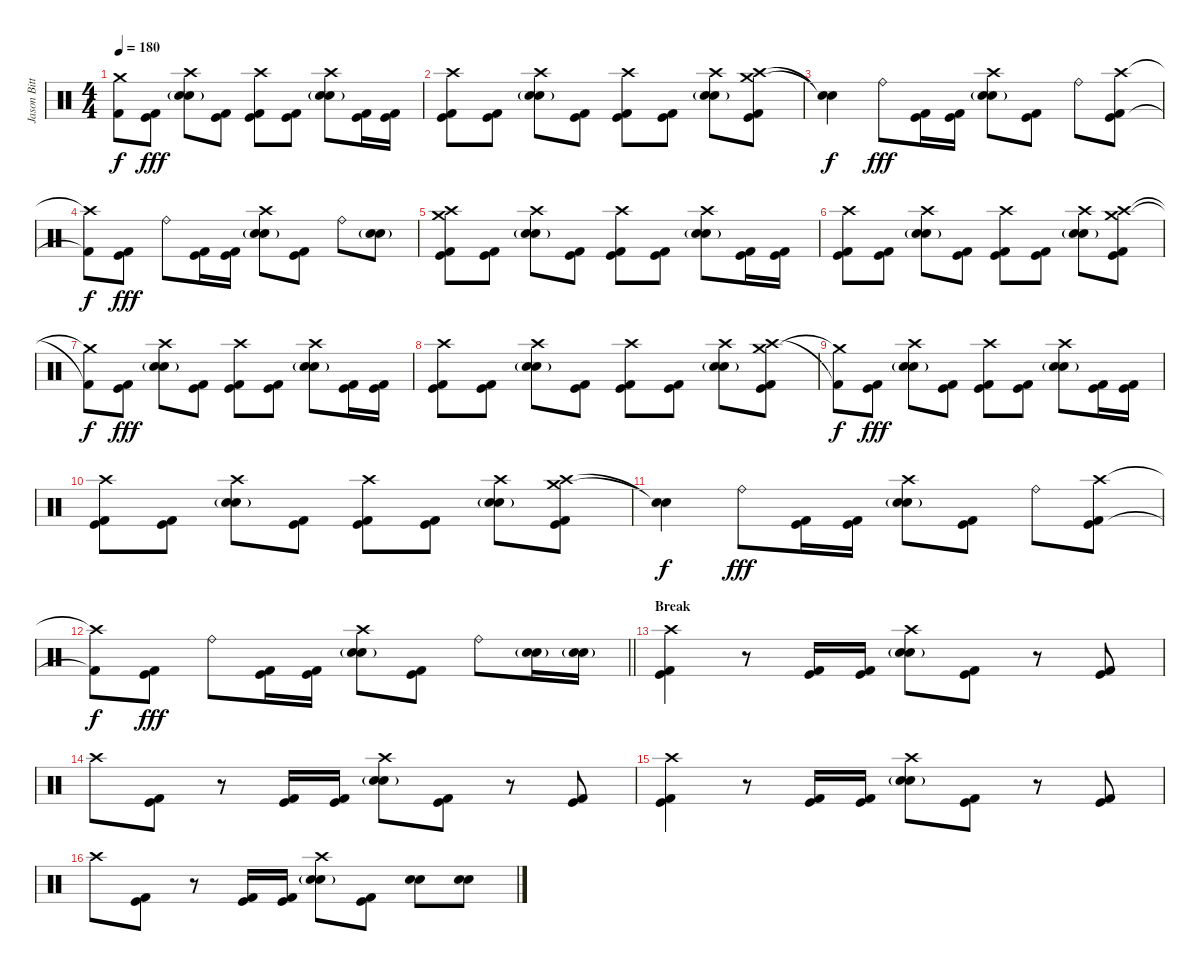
\track ("Jason Bittner" "Jason Bitt") {instrument percussion}
\staff {score}
\articulation defaults
\ts (4 4)
\tempo 180
\clef neutral
\ks c
("Crash medium (hit)"{t} "Kick (hit) 2"{t}).8{dy f} ("Kick (hit)" "Kick (hit) 2").8{dy fff} ("Crash high (hit)" "Snare (hit) 2"{g} "Electric Snare (hit)").8 ("Kick (hit)" "Kick (hit) 2").8 ("Crash high (hit)" "Kick (hit)" "Kick (hit) 2").8 ("Kick (hit)" "Kick (hit) 2").8 ("Crash high (hit)" "Snare (hit) 2"{g} "Electric Snare (hit)").8 ("Kick (hit)" "Kick (hit) 2").16 ("Kick (hit)" "Kick (hit) 2").16 |
("Crash high (hit)" "Kick (hit)" "Kick (hit) 2").8 ("Kick (hit)" "Kick (hit) 2").8 ("Crash high (hit)" "Snare (hit) 2"{g} "Electric Snare (hit)").8 ("Kick (hit)" "Kick (hit) 2").8 ("Crash high (hit)" "Kick (hit)" "Kick (hit) 2").8 ("Kick (hit)" "Kick (hit) 2").8 ("Crash high (hit)" "Snare (hit) 2"{g} "Electric Snare (hit)").8 ("Crash medium (hit)" "Crash high (hit)" "Kick (hit)" "Kick (hit) 2").8 |
("Snare (hit)"{t} "Snare (hit)"{t}).4{dy f} "Ride (bell)".8{dy fff} ("Kick (hit)" "Kick (hit) 2").16 ("Kick (hit)" "Kick (hit) 2").16 ("Crash high (hit)" "Snare (hit) 2"{g} "Electric Snare (hit)").8 ("Kick (hit)" "Kick (hit) 2").8 "Ride (bell)".8 ("Crash high (hit)" "Kick (hit)" "Kick (hit) 2").8 |
("Crash high (hit)"{t} "Kick (hit) 2"{t}).8{dy f} ("Kick (hit)" "Kick (hit) 2").8{dy fff} "Ride (bell)".8 ("Kick (hit)" "Kick (hit) 2").16 ("Kick (hit)" "Kick (hit) 2").16 ("Crash high (hit)" "Snare (hit) 2"{g} "Electric Snare (hit)").8 ("Kick (hit)" "Kick (hit) 2").8 "Ride (bell)".8 ("Snare (hit) 2"{g} "Electric Snare (hit)").8 |
("Crash medium (hit)" "Crash high (hit)" "Kick (hit)" "Kick (hit) 2").8 ("Kick (hit)" "Kick (hit) 2").8 ("Crash high (hit)" "Snare (hit) 2"{g} "Electric Snare (hit)").8 ("Kick (hit)" "Kick (hit) 2").8 ("Crash high (hit)" "Kick (hit)" "Kick (hit) 2").8 ("Kick (hit)" "Kick (hit) 2").8 ("Crash high (hit)" "Snare (hit) 2"{g} "Electric Snare (hit)").8 ("Kick (hit)" "Kick (hit) 2").16 ("Kick (hit)" "Kick (hit) 2").16 |
("Crash high (hit)" "Kick (hit)" "Kick (hit) 2").8 ("Kick (hit)" "Kick (hit) 2").8 ("Crash high (hit)" "Snare (hit) 2"{g} "Electric Snare (hit)").8 ("Kick (hit)" "Kick (hit) 2").8 ("Crash high (hit)" "Kick (hit)" "Kick (hit) 2").8 ("Kick (hit)" "Kick (hit) 2").8 ("Crash high (hit)" "Snare (hit) 2"{g} "Electric Snare (hit)").8 ("Crash medium (hit)" "Crash high (hit)" "Kick (hit)" "Kick (hit) 2").8 |
("Crash medium (hit)"{t} "Kick (hit) 2"{t}).8{dy f} ("Kick (hit)" "Kick (hit) 2").8{dy fff} ("Crash high (hit)" "Snare (hit) 2"{g} "Electric Snare (hit)").8 ("Kick (hit)" "Kick (hit) 2").8 ("Crash high (hit)" "Kick (hit)" "Kick (hit) 2").8 ("Kick (hit)" "Kick (hit) 2").8 ("Crash high (hit)" "Snare (hit) 2"{g} "Electric Snare (hit)").8 ("Kick (hit)" "Kick (hit) 2").16 ("Kick (hit)" "Kick (hit) 2").16 |
("Crash high (hit)" "Kick (hit)" "Kick (hit) 2").8 ("Kick (hit)" "Kick (hit) 2").8 ("Crash high (hit)" "Snare (hit) 2"{g} "Electric Snare (hit)").8 ("Kick (hit)" "Kick (hit) 2").8 ("Crash high (hit)" "Kick (hit)" "Kick (hit) 2").8 ("Kick (hit)" "Kick (hit) 2").8 ("Crash high (hit)" "Snare (hit) 2"{g} "Electric Snare (hit)").8 ("Crash medium (hit)" "Crash high (hit)" "Kick (hit)" "Kick (hit) 2").8 |
("Crash medium (hit)"{t} "Kick (hit) 2"{t}).8{dy f} ("Kick (hit)" "Kick (hit) 2").8{dy fff} ("Crash high (hit)" "Snare (hit) 2"{g} "Electric Snare (hit)").8 ("Kick (hit)" "Kick (hit) 2").8 ("Crash high (hit)" "Kick (hit)" "Kick (hit) 2").8 ("Kick (hit)" "Kick (hit) 2").8 ("Crash high (hit)" "Snare (hit) 2"{g} "Electric Snare (hit)").8 ("Kick (hit)" "Kick (hit) 2").16 ("Kick (hit)" "Kick (hit) 2").16 |
("Crash high (hit)" "Kick (hit)" "Kick (hit) 2").8 ("Kick (hit)" "Kick (hit) 2").8 ("Crash high (hit)" "Snare (hit) 2"{g} "Electric Snare (hit)").8 ("Kick (hit)" "Kick (hit) 2").8 ("Crash high (hit)" "Kick (hit)" "Kick (hit) 2").8 ("Kick (hit)" "Kick (hit) 2").8 ("Crash high (hit)" "Snare (hit) 2"{g} "Electric Snare (hit)").8 ("Crash medium (hit)" "Crash high (hit)" "Kick (hit)" "Kick (hit) 2").8 |
("Snare (hit)"{t} "Snare (hit)"{t}).4{dy f} "Ride (bell)".8{dy fff} ("Kick (hit)" "Kick (hit) 2").16 ("Kick (hit)" "Kick (hit) 2").16 ("Crash high (hit)" "Snare (hit) 2"{g} "Electric Snare (hit)").8 ("Kick (hit)" "Kick (hit) 2").8 "Ride (bell)".8 ("Crash high (hit)" "Kick (hit)" "Kick (hit) 2").8 |
\barLineRight lightlight
("Crash high (hit)"{t} "Kick (hit) 2"{t}).8{dy f} ("Kick (hit)" "Kick (hit) 2").8{dy fff} "Ride (bell)".8 ("Kick (hit)" "Kick (hit) 2").16 ("Kick (hit)" "Kick (hit) 2").16 ("Crash high (hit)" "Snare (hit) 2"{g} "Electric Snare (hit)").8 ("Kick (hit)" "Kick (hit) 2").8 "Ride (bell)".8 ("Snare (hit) 2"{g} "Electric Snare (hit)").16 ("Snare (hit) 2"{g} "Electric Snare (hit)").16 |
\section ("" "Break")
("Crash high (hit)" "Kick (hit)" "Kick (hit) 2").4 r.8 ("Kick (hit)" "Kick (hit) 2").16 ("Kick (hit)" "Kick (hit) 2").16 ("Crash high (hit)" "Snare (hit) 2"{g} "Electric Snare (hit)").8 ("Kick (hit)" "Kick (hit) 2").8 r.8 ("Kick (hit)" "Kick (hit) 2").8 |
"Crash high (hit)".8 ("Kick (hit)" "Kick (hit) 2").8 r.8 ("Kick (hit)" "Kick (hit) 2").16 ("Kick (hit)" "Kick (hit) 2").16 ("Crash high (hit)" "Snare (hit) 2"{g} "Electric Snare (hit)").8 ("Kick (hit)" "Kick (hit) 2").8 r.8 ("Kick (hit)" "Kick (hit) 2").8 |
("Crash high (hit)" "Kick (hit)" "Kick (hit) 2").4 r.8 ("Kick (hit)" "Kick (hit) 2").16 ("Kick (hit)" "Kick (hit) 2").16 ("Crash high (hit)" "Snare (hit) 2"{g} "Electric Snare (hit)").8 ("Kick (hit)" "Kick (hit) 2").8 r.8 ("Kick (hit)" "Kick (hit) 2").8 |
"Crash high (hit)".8 ("Kick (hit)" "Kick (hit) 2").8 r.8 ("Kick (hit)" "Kick (hit) 2").16 ("Kick (hit)" "Kick (hit) 2").16 ("Crash high (hit)" "Snare (hit) 2"{g} "Electric Snare (hit)").8 ("Kick (hit)" "Kick (hit) 2").8 ("Snare (hit) 2" "Electric Snare (hit)").8 ("Snare (hit) 2" "Electric Snare (hit)").8
